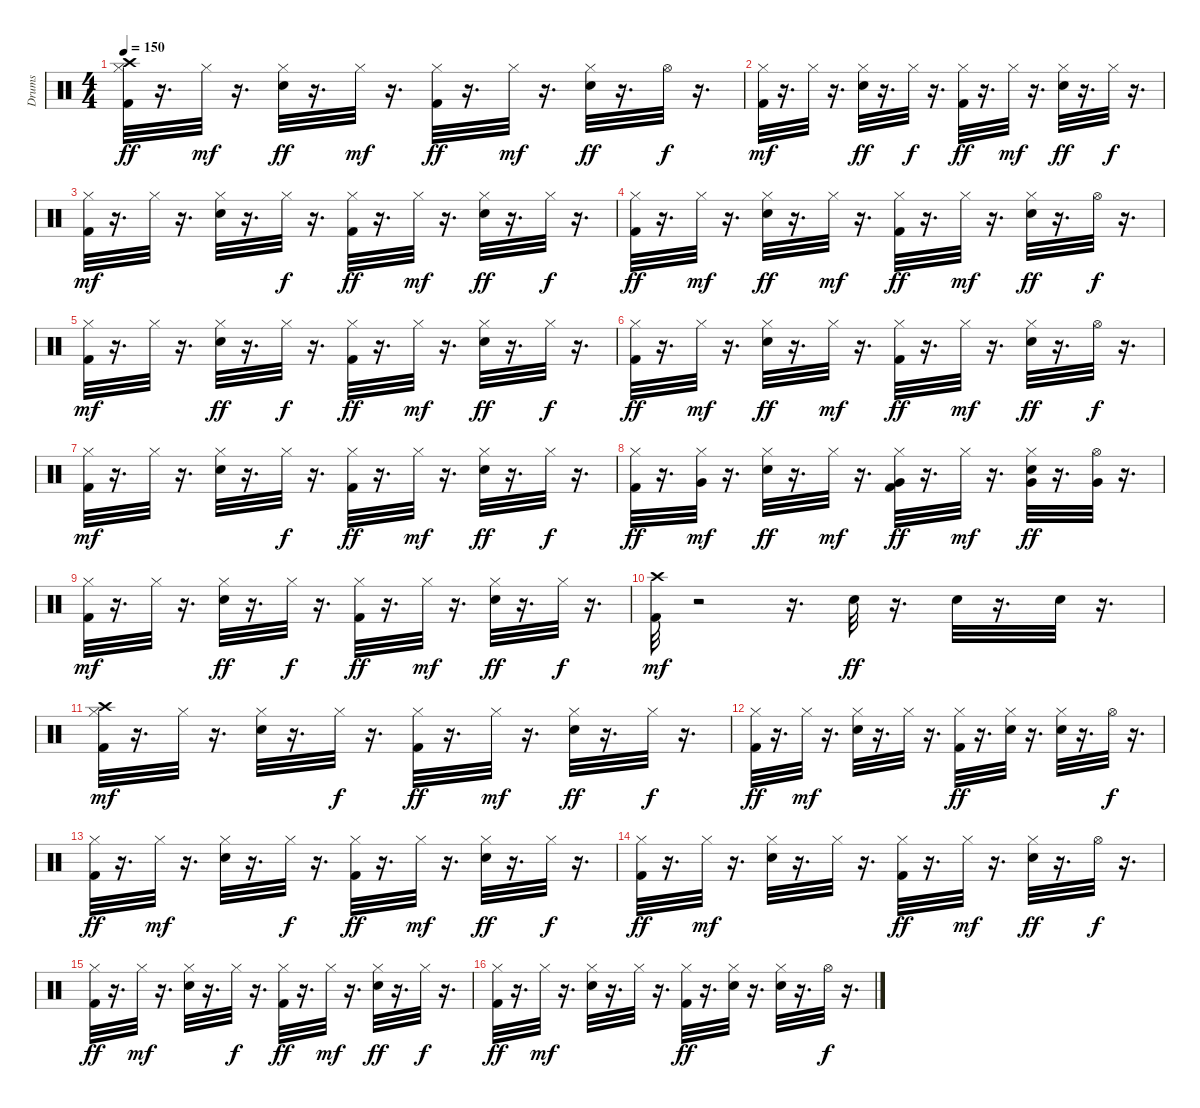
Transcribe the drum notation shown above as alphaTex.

\track ("Drums" "Drums") {instrument percussion}
\staff {score}
\articulation defaults
\ts (4 4)
\tempo 150
\clef neutral
\ks c
("Hi-Hat (closed)" "Kick (hit) 2" "Crash high (hit)").32{dy ff} r.16{d} "Hi-Hat (closed)".32{dy mf} r.16{d} ("Hi-Hat (closed)" "Snare (hit) 2").32{dy ff} r.16{d} "Hi-Hat (closed)".32{dy mf} r.16{d} ("Kick (hit) 2" "Hi-Hat (closed)").32{dy ff} r.16{d} "Hi-Hat (closed)".32{dy mf} r.16{d} ("Snare (hit) 2" "Hi-Hat (closed)").32{dy ff} r.16{d} "Hi-Hat (open)".32{dy f} r.16{d} |
("Kick (hit) 2" "Hi-Hat (closed)").32{dy mf} r.16{d} "Hi-Hat (closed)".32 r.16{d} ("Hi-Hat (closed)" "Snare (hit) 2").32{dy ff} r.16{d} "Hi-Hat (closed)".32{dy f} r.16{d} ("Kick (hit) 2" "Hi-Hat (closed)").32{dy ff} r.16{d} "Hi-Hat (closed)".32{dy mf} r.16{d} ("Snare (hit) 2" "Hi-Hat (closed)").32{dy ff} r.16{d} "Hi-Hat (closed)".32{dy f} r.16{d} |
("Kick (hit) 2" "Hi-Hat (closed)").32{dy mf} r.16{d} "Hi-Hat (closed)".32 r.16{d} ("Snare (hit) 2" "Hi-Hat (closed)").32 r.16{d} "Hi-Hat (closed)".32{dy f} r.16{d} ("Hi-Hat (closed)" "Kick (hit) 2").32{dy ff} r.16{d} "Hi-Hat (closed)".32{dy mf} r.16{d} ("Snare (hit) 2" "Hi-Hat (closed)").32{dy ff} r.16{d} "Hi-Hat (closed)".32{dy f} r.16{d} |
("Kick (hit) 2" "Hi-Hat (closed)").32{dy ff} r.16{d} "Hi-Hat (closed)".32{dy mf} r.16{d} ("Hi-Hat (closed)" "Snare (hit) 2").32{dy ff} r.16{d} "Hi-Hat (closed)".32{dy mf} r.16{d} ("Hi-Hat (closed)" "Kick (hit) 2").32{dy ff} r.16{d} "Hi-Hat (closed)".32{dy mf} r.16{d} ("Snare (hit) 2" "Hi-Hat (closed)").32{dy ff} r.16{d} "Hi-Hat (open)".32{dy f} r.16{d} |
("Kick (hit) 2" "Hi-Hat (closed)").32{dy mf} r.16{d} "Hi-Hat (closed)".32 r.16{d} ("Hi-Hat (closed)" "Snare (hit) 2").32{dy ff} r.16{d} "Hi-Hat (closed)".32{dy f} r.16{d} ("Hi-Hat (closed)" "Kick (hit) 2").32{dy ff} r.16{d} "Hi-Hat (closed)".32{dy mf} r.16{d} ("Snare (hit) 2" "Hi-Hat (closed)").32{dy ff} r.16{d} "Hi-Hat (closed)".32{dy f} r.16{d} |
("Kick (hit) 2" "Hi-Hat (closed)").32{dy ff} r.16{d} "Hi-Hat (closed)".32{dy mf} r.16{d} ("Hi-Hat (closed)" "Snare (hit) 2").32{dy ff} r.16{d} "Hi-Hat (closed)".32{dy mf} r.16{d} ("Hi-Hat (closed)" "Kick (hit) 2").32{dy ff} r.16{d} "Hi-Hat (closed)".32{dy mf} r.16{d} ("Snare (hit) 2" "Hi-Hat (closed)").32{dy ff} r.16{d} "Hi-Hat (open)".32{dy f} r.16{d} |
("Kick (hit) 2" "Hi-Hat (closed)").32{dy mf} r.16{d} "Hi-Hat (closed)".32 r.16{d} ("Snare (hit) 2" "Hi-Hat (closed)").32 r.16{d} "Hi-Hat (closed)".32{dy f} r.16{d} ("Kick (hit) 2" "Hi-Hat (closed)").32{dy ff} r.16{d} "Hi-Hat (closed)".32{dy mf} r.16{d} ("Snare (hit) 2" "Hi-Hat (closed)").32{dy ff} r.16{d} "Hi-Hat (closed)".32{dy f} r.16{d} |
("Kick (hit) 2" "Hi-Hat (closed)").32{dy ff} r.16{d} ("Hi-Hat (closed)" "Very Low Tom (hit)").32{dy mf} r.16{d} ("Hi-Hat (closed)" "Snare (hit) 2").32{dy ff} r.16{d} "Hi-Hat (closed)".32{dy mf} r.16{d} ("Kick (hit) 2" "Hi-Hat (closed)" "Very Low Tom (hit)").32{dy ff} r.16{d} "Hi-Hat (closed)".32{dy mf} r.16{d} ("Hi-Hat (closed)" "Snare (hit) 2" "Very Low Tom (hit)").32{dy ff} r.16{d} ("Hi-Hat (open)" "Very Low Tom (hit)").32 r.16{d} |
("Kick (hit) 2" "Hi-Hat (closed)").32{dy mf} r.16{d} "Hi-Hat (closed)".32 r.16{d} ("Hi-Hat (closed)" "Snare (hit) 2").32{dy ff} r.16{d} "Hi-Hat (closed)".32{dy f} r.16{d} ("Hi-Hat (closed)" "Kick (hit) 2").32{dy ff} r.16{d} "Hi-Hat (closed)".32{dy mf} r.16{d} ("Hi-Hat (closed)" "Snare (hit) 2").32{dy ff} r.16{d} "Hi-Hat (closed)".32{dy f} r.16{d} |
("Kick (hit) 2" "Crash high (hit)").32{dy mf} r.2 r.16{d} "Snare (hit) 2".32{dy ff} r.16{d} "Snare (hit) 2".32 r.16{d} "Snare (hit) 2".32 r.16{d} |
("Kick (hit) 2" "Hi-Hat (closed)" "Crash high (hit)").32{dy mf} r.16{d} "Hi-Hat (closed)".32 r.16{d} ("Snare (hit) 2" "Hi-Hat (closed)").32 r.16{d} "Hi-Hat (closed)".32{dy f} r.16{d} ("Kick (hit) 2" "Hi-Hat (closed)").32{dy ff} r.16{d} "Hi-Hat (closed)".32{dy mf} r.16{d} ("Hi-Hat (closed)" "Snare (hit) 2").32{dy ff} r.16{d} "Hi-Hat (closed)".32{dy f} r.16{d} |
("Hi-Hat (closed)" "Kick (hit) 2").32{dy ff} r.16{d} "Hi-Hat (closed)".32{dy mf} r.16{d} ("Snare (hit) 2" "Hi-Hat (closed)").32 r.16{d} "Hi-Hat (closed)".32 r.16{d} ("Kick (hit) 2" "Hi-Hat (closed)").32{dy ff} r.16{d} ("Hi-Hat (closed)" "Snare (hit) 2").32 r.16{d} ("Hi-Hat (closed)" "Snare (hit) 2").32 r.16{d} "Hi-Hat (open)".32{dy f} r.16{d} |
("Hi-Hat (closed)" "Kick (hit) 2").32{dy ff} r.16{d} "Hi-Hat (closed)".32{dy mf} r.16{d} ("Snare (hit) 2" "Hi-Hat (closed)").32 r.16{d} "Hi-Hat (closed)".32{dy f} r.16{d} ("Hi-Hat (closed)" "Kick (hit) 2").32{dy ff} r.16{d} "Hi-Hat (closed)".32{dy mf} r.16{d} ("Snare (hit) 2" "Hi-Hat (closed)").32{dy ff} r.16{d} "Hi-Hat (closed)".32{dy f} r.16{d} |
("Hi-Hat (closed)" "Kick (hit) 2").32{dy ff} r.16{d} "Hi-Hat (closed)".32{dy mf} r.16{d} ("Snare (hit) 2" "Hi-Hat (closed)").32 r.16{d} "Hi-Hat (closed)".32 r.16{d} ("Kick (hit) 2" "Hi-Hat (closed)").32{dy ff} r.16{d} "Hi-Hat (closed)".32{dy mf} r.16{d} ("Hi-Hat (closed)" "Snare (hit) 2").32{dy ff} r.16{d} "Hi-Hat (open)".32{dy f} r.16{d} |
("Hi-Hat (closed)" "Kick (hit) 2").32{dy ff} r.16{d} "Hi-Hat (closed)".32{dy mf} r.16{d} ("Snare (hit) 2" "Hi-Hat (closed)").32 r.16{d} "Hi-Hat (closed)".32{dy f} r.16{d} ("Kick (hit) 2" "Hi-Hat (closed)").32{dy ff} r.16{d} "Hi-Hat (closed)".32{dy mf} r.16{d} ("Snare (hit) 2" "Hi-Hat (closed)").32{dy ff} r.16{d} "Hi-Hat (closed)".32{dy f} r.16{d} |
("Hi-Hat (closed)" "Kick (hit) 2").32{dy ff} r.16{d} "Hi-Hat (closed)".32{dy mf} r.16{d} ("Snare (hit) 2" "Hi-Hat (closed)").32 r.16{d} "Hi-Hat (closed)".32 r.16{d} ("Kick (hit) 2" "Hi-Hat (closed)").32{dy ff} r.16{d} ("Hi-Hat (closed)" "Snare (hit) 2").32 r.16{d} ("Hi-Hat (closed)" "Snare (hit) 2").32 r.16{d} "Hi-Hat (open)".32{dy f} r.16{d}
